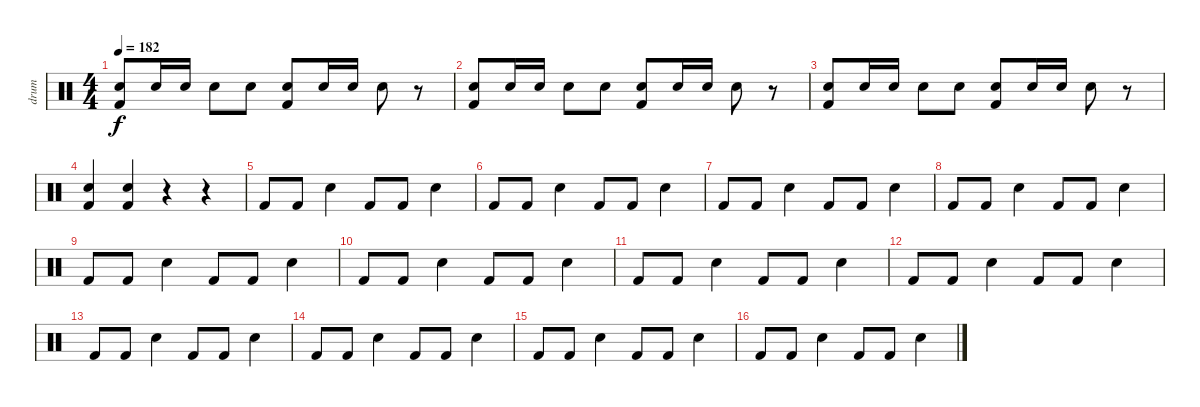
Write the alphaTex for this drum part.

\track ("drum" "drum") {instrument percussion}
\staff {score}
\articulation defaults
\ts (4 4)
\tempo 182
\clef neutral
\ks c
("Electric Snare (hit)" "Kick (hit) 2").8{dy f} "Electric Snare (hit)".16 "Electric Snare (hit)".16 "Electric Snare (hit)".8 "Electric Snare (hit)".8 ("Electric Snare (hit)" "Kick (hit) 2").8 "Electric Snare (hit)".16 "Electric Snare (hit)".16 "Electric Snare (hit)".8 r.8 |
("Electric Snare (hit)" "Kick (hit) 2").8 "Electric Snare (hit)".16 "Electric Snare (hit)".16 "Electric Snare (hit)".8 "Electric Snare (hit)".8 ("Electric Snare (hit)" "Kick (hit) 2").8 "Electric Snare (hit)".16 "Electric Snare (hit)".16 "Electric Snare (hit)".8 r.8 |
("Electric Snare (hit)" "Kick (hit) 2").8 "Electric Snare (hit)".16 "Electric Snare (hit)".16 "Electric Snare (hit)".8 "Electric Snare (hit)".8 ("Electric Snare (hit)" "Kick (hit) 2").8 "Electric Snare (hit)".16 "Electric Snare (hit)".16 "Electric Snare (hit)".8 r.8 |
("Electric Snare (hit)" "Kick (hit) 2").4 ("Electric Snare (hit)" "Kick (hit) 2").4 r.4 r.4 |
"Kick (hit) 2".8 "Kick (hit) 2".8 "Electric Snare (hit)".4 "Kick (hit) 2".8 "Kick (hit) 2".8 "Electric Snare (hit)".4 |
"Kick (hit) 2".8 "Kick (hit) 2".8 "Electric Snare (hit)".4 "Kick (hit) 2".8 "Kick (hit) 2".8 "Electric Snare (hit)".4 |
"Kick (hit) 2".8 "Kick (hit) 2".8 "Electric Snare (hit)".4 "Kick (hit) 2".8 "Kick (hit) 2".8 "Electric Snare (hit)".4 |
"Kick (hit) 2".8 "Kick (hit) 2".8 "Electric Snare (hit)".4 "Kick (hit) 2".8 "Kick (hit) 2".8 "Electric Snare (hit)".4 |
"Kick (hit) 2".8 "Kick (hit) 2".8 "Electric Snare (hit)".4 "Kick (hit) 2".8 "Kick (hit) 2".8 "Electric Snare (hit)".4 |
"Kick (hit) 2".8 "Kick (hit) 2".8 "Electric Snare (hit)".4 "Kick (hit) 2".8 "Kick (hit) 2".8 "Electric Snare (hit)".4 |
"Kick (hit) 2".8 "Kick (hit) 2".8 "Electric Snare (hit)".4 "Kick (hit) 2".8 "Kick (hit) 2".8 "Electric Snare (hit)".4 |
"Kick (hit) 2".8 "Kick (hit) 2".8 "Electric Snare (hit)".4 "Kick (hit) 2".8 "Kick (hit) 2".8 "Electric Snare (hit)".4 |
"Kick (hit) 2".8 "Kick (hit) 2".8 "Electric Snare (hit)".4 "Kick (hit) 2".8 "Kick (hit) 2".8 "Electric Snare (hit)".4 |
"Kick (hit) 2".8 "Kick (hit) 2".8 "Electric Snare (hit)".4 "Kick (hit) 2".8 "Kick (hit) 2".8 "Electric Snare (hit)".4 |
"Kick (hit) 2".8 "Kick (hit) 2".8 "Electric Snare (hit)".4 "Kick (hit) 2".8 "Kick (hit) 2".8 "Electric Snare (hit)".4 |
"Kick (hit) 2".8 "Kick (hit) 2".8 "Electric Snare (hit)".4 "Kick (hit) 2".8 "Kick (hit) 2".8 "Electric Snare (hit)".4
